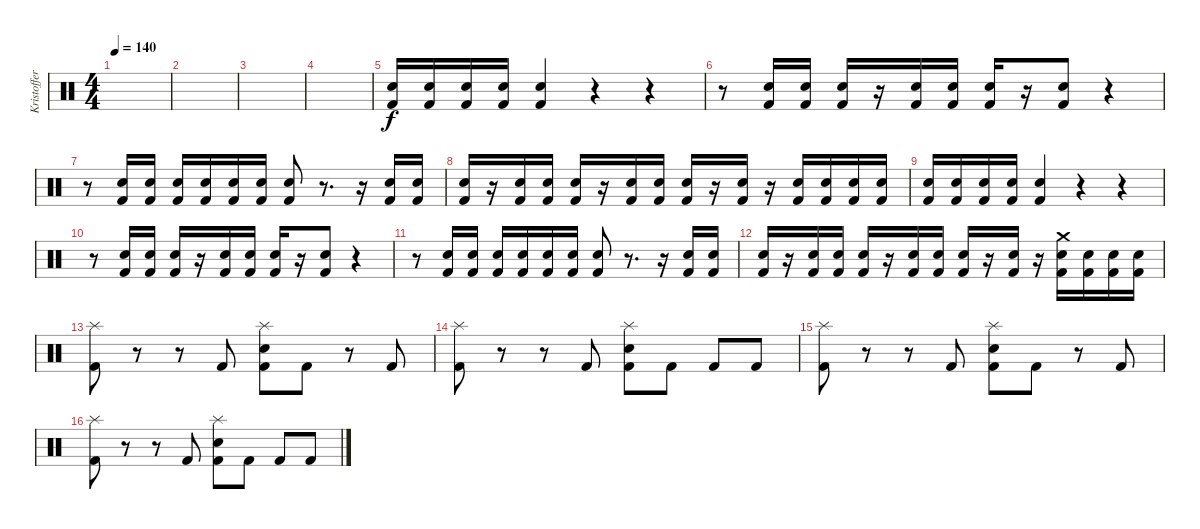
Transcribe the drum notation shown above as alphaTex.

\track ("Kristoffer (Drums)" "Kristoffer") {instrument percussion}
\staff {score}
\articulation defaults
\ts (4 4)
\tempo 140
\clef neutral
\ks c
|
|
|
|
("Kick (hit) 2" "Electric Snare (hit)").16 ("Kick (hit) 2" "Electric Snare (hit)").16 ("Kick (hit) 2" "Electric Snare (hit)").16 ("Kick (hit) 2" "Electric Snare (hit)").16 ("Kick (hit) 2" "Electric Snare (hit)").4 r.4 r.4 |
r.8 ("Kick (hit) 2" "Electric Snare (hit)").16 ("Kick (hit) 2" "Electric Snare (hit)").16 ("Kick (hit) 2" "Electric Snare (hit)").16 r.16 ("Kick (hit) 2" "Electric Snare (hit)").16 ("Kick (hit) 2" "Electric Snare (hit)").16 ("Kick (hit) 2" "Electric Snare (hit)").16 r.16 ("Kick (hit) 2" "Electric Snare (hit)").8 r.4 |
r.8 ("Kick (hit) 2" "Electric Snare (hit)").16 ("Kick (hit) 2" "Electric Snare (hit)").16 ("Kick (hit) 2" "Electric Snare (hit)").16 ("Kick (hit) 2" "Electric Snare (hit)").16 ("Kick (hit) 2" "Electric Snare (hit)").16 ("Kick (hit) 2" "Electric Snare (hit)").16 ("Kick (hit) 2" "Electric Snare (hit)").8 r.8{d} r.16 ("Kick (hit) 2" "Electric Snare (hit)").16 ("Kick (hit) 2" "Electric Snare (hit)").16 |
("Kick (hit) 2" "Electric Snare (hit)").16 r.16 ("Kick (hit) 2" "Electric Snare (hit)").16 ("Kick (hit) 2" "Electric Snare (hit)").16 ("Kick (hit) 2" "Electric Snare (hit)").16 r.16 ("Kick (hit) 2" "Electric Snare (hit)").16 ("Kick (hit) 2" "Electric Snare (hit)").16 ("Kick (hit) 2" "Electric Snare (hit)").16 r.16 ("Kick (hit) 2" "Electric Snare (hit)").16 r.16 ("Kick (hit) 2" "Electric Snare (hit)").16 ("Kick (hit) 2" "Electric Snare (hit)").16 ("Kick (hit) 2" "Electric Snare (hit)").16 ("Kick (hit) 2" "Electric Snare (hit)").16 |
("Kick (hit) 2" "Electric Snare (hit)").16 ("Kick (hit) 2" "Electric Snare (hit)").16 ("Kick (hit) 2" "Electric Snare (hit)").16 ("Kick (hit) 2" "Electric Snare (hit)").16 ("Kick (hit) 2" "Electric Snare (hit)").4 r.4 r.4 |
r.8 ("Kick (hit) 2" "Electric Snare (hit)").16 ("Kick (hit) 2" "Electric Snare (hit)").16 ("Kick (hit) 2" "Electric Snare (hit)").16 r.16 ("Kick (hit) 2" "Electric Snare (hit)").16 ("Kick (hit) 2" "Electric Snare (hit)").16 ("Kick (hit) 2" "Electric Snare (hit)").16 r.16 ("Kick (hit) 2" "Electric Snare (hit)").8 r.4 |
r.8 ("Kick (hit) 2" "Electric Snare (hit)").16 ("Kick (hit) 2" "Electric Snare (hit)").16 ("Kick (hit) 2" "Electric Snare (hit)").16 ("Kick (hit) 2" "Electric Snare (hit)").16 ("Kick (hit) 2" "Electric Snare (hit)").16 ("Kick (hit) 2" "Electric Snare (hit)").16 ("Kick (hit) 2" "Electric Snare (hit)").8 r.8{d} r.16 ("Kick (hit) 2" "Electric Snare (hit)").16 ("Kick (hit) 2" "Electric Snare (hit)").16 |
("Kick (hit) 2" "Electric Snare (hit)").16 r.16 ("Kick (hit) 2" "Electric Snare (hit)").16 ("Kick (hit) 2" "Electric Snare (hit)").16 ("Kick (hit) 2" "Electric Snare (hit)").16 r.16 ("Kick (hit) 2" "Electric Snare (hit)").16 ("Kick (hit) 2" "Electric Snare (hit)").16 ("Kick (hit) 2" "Electric Snare (hit)").16 r.16 ("Kick (hit) 2" "Electric Snare (hit)").16 r.16 ("Kick (hit) 2" "Crash medium (hit)" "Electric Snare (hit)").16 ("Kick (hit) 2" "Electric Snare (hit)").16 ("Kick (hit) 2" "Electric Snare (hit)").16 ("Kick (hit) 2" "Electric Snare (hit)").16 |
("Kick (hit) 2" "Splash (hit)").8 r.8 r.8 "Kick (hit) 2".8 ("Kick (hit) 2" "Electric Snare (hit)" "Splash (hit)").8 "Kick (hit) 2".8 r.8 "Kick (hit) 2".8 |
("Kick (hit) 2" "Splash (hit)").8 r.8 r.8 "Kick (hit) 2".8 ("Kick (hit) 2" "Electric Snare (hit)" "Splash (hit)").8 "Kick (hit) 2".8 "Kick (hit) 2".8 "Kick (hit) 2".8 |
("Kick (hit) 2" "Splash (hit)").8 r.8 r.8 "Kick (hit) 2".8 ("Kick (hit) 2" "Electric Snare (hit)" "Splash (hit)").8 "Kick (hit) 2".8 r.8 "Kick (hit) 2".8 |
("Kick (hit) 2" "Splash (hit)").8 r.8 r.8 "Kick (hit) 2".8 ("Kick (hit) 2" "Electric Snare (hit)" "Splash (hit)").8 "Kick (hit) 2".8 "Kick (hit) 2".8 "Kick (hit) 2".8
